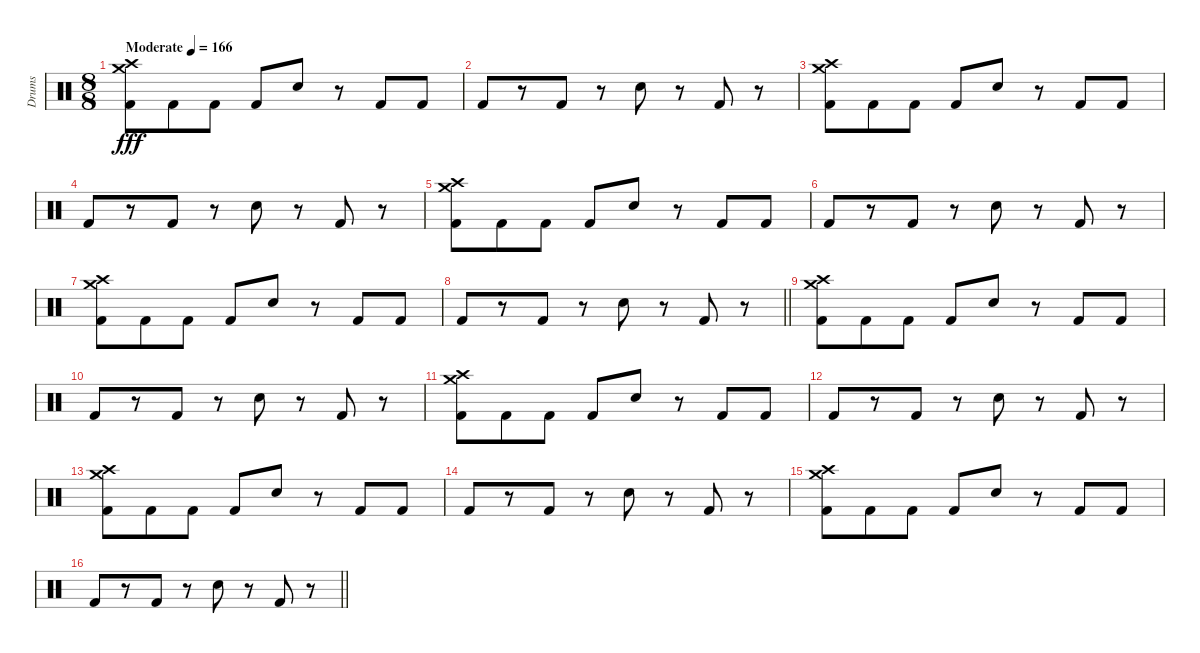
\track ("Drums" "Drums") {instrument percussion}
\staff {score}
\articulation defaults
\ts (8 8)
\tempo (166 "Moderate")
\clef neutral
\ks c
("Crash high (hit)" "Crash medium (hit)" "Kick (hit) 2").8{dy fff} "Kick (hit) 2".8 "Kick (hit) 2".8 "Kick (hit) 2".8 "Electric Snare (hit)".8 r.8 "Kick (hit) 2".8 "Kick (hit) 2".8 |
"Kick (hit) 2".8 r.8 "Kick (hit) 2".8 r.8 "Electric Snare (hit)".8 r.8 "Kick (hit) 2".8 r.8 |
("Crash high (hit)" "Crash medium (hit)" "Kick (hit) 2").8 "Kick (hit) 2".8 "Kick (hit) 2".8 "Kick (hit) 2".8 "Electric Snare (hit)".8 r.8 "Kick (hit) 2".8 "Kick (hit) 2".8 |
"Kick (hit) 2".8 r.8 "Kick (hit) 2".8 r.8 "Electric Snare (hit)".8 r.8 "Kick (hit) 2".8 r.8 |
("Crash high (hit)" "Crash medium (hit)" "Kick (hit) 2").8 "Kick (hit) 2".8 "Kick (hit) 2".8 "Kick (hit) 2".8 "Electric Snare (hit)".8 r.8 "Kick (hit) 2".8 "Kick (hit) 2".8 |
"Kick (hit) 2".8 r.8 "Kick (hit) 2".8 r.8 "Electric Snare (hit)".8 r.8 "Kick (hit) 2".8 r.8 |
("Crash high (hit)" "Crash medium (hit)" "Kick (hit) 2").8 "Kick (hit) 2".8 "Kick (hit) 2".8 "Kick (hit) 2".8 "Electric Snare (hit)".8 r.8 "Kick (hit) 2".8 "Kick (hit) 2".8 |
\barLineRight lightlight "Kick (hit) 2".8
r.8 "Kick (hit) 2".8 r.8 "Electric Snare (hit)".8 r.8 "Kick (hit) 2".8 r.8 |
\section ("" "")
("Crash high (hit)" "Crash medium (hit)" "Kick (hit) 2").8 "Kick (hit) 2".8 "Kick (hit) 2".8 "Kick (hit) 2".8 "Electric Snare (hit)".8 r.8 "Kick (hit) 2".8 "Kick (hit) 2".8 |
"Kick (hit) 2".8 r.8 "Kick (hit) 2".8 r.8 "Electric Snare (hit)".8 r.8 "Kick (hit) 2".8 r.8 |
("Crash high (hit)" "Crash medium (hit)" "Kick (hit) 2").8 "Kick (hit) 2".8 "Kick (hit) 2".8 "Kick (hit) 2".8 "Electric Snare (hit)".8 r.8 "Kick (hit) 2".8 "Kick (hit) 2".8 |
"Kick (hit) 2".8 r.8 "Kick (hit) 2".8 r.8 "Electric Snare (hit)".8 r.8 "Kick (hit) 2".8 r.8 |
("Crash high (hit)" "Crash medium (hit)" "Kick (hit) 2").8 "Kick (hit) 2".8 "Kick (hit) 2".8 "Kick (hit) 2".8 "Electric Snare (hit)".8 r.8 "Kick (hit) 2".8 "Kick (hit) 2".8 |
"Kick (hit) 2".8 r.8 "Kick (hit) 2".8 r.8 "Electric Snare (hit)".8 r.8 "Kick (hit) 2".8 r.8 |
("Crash high (hit)" "Crash medium (hit)" "Kick (hit) 2").8 "Kick (hit) 2".8 "Kick (hit) 2".8 "Kick (hit) 2".8 "Electric Snare (hit)".8 r.8 "Kick (hit) 2".8 "Kick (hit) 2".8 |
\barLineRight lightlight "Kick (hit) 2".8
r.8 "Kick (hit) 2".8 r.8 "Electric Snare (hit)".8 r.8 "Kick (hit) 2".8 r.8
